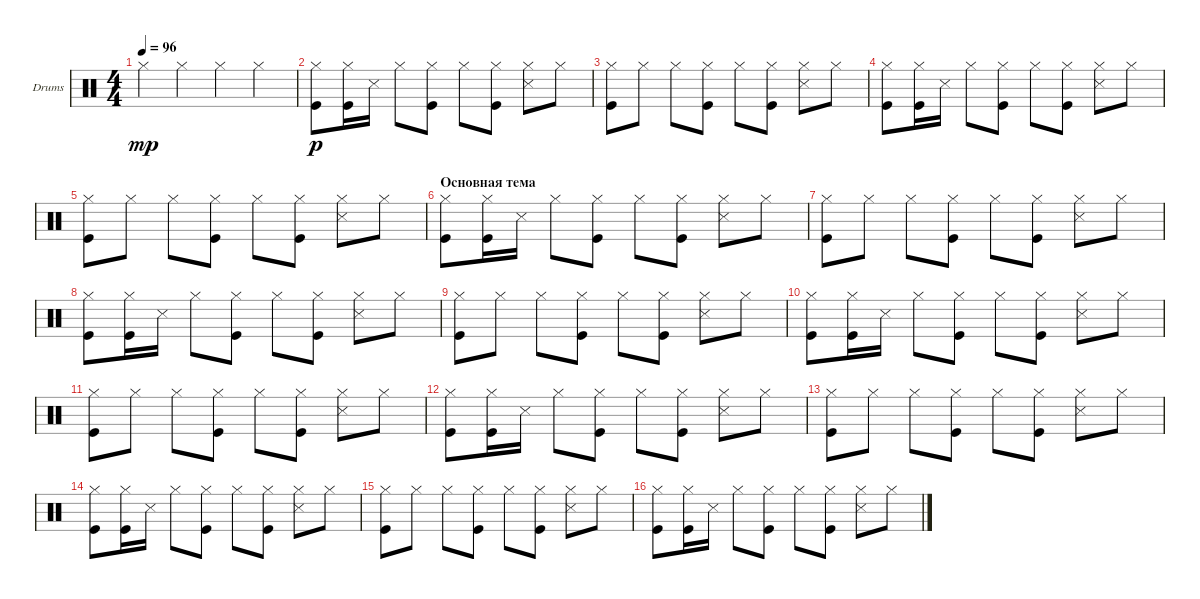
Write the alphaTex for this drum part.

\defaultSystemsLayout 4
\bracketExtendMode groupsimilarinstruments
\firstSystemTrackNameOrientation horizontal
\otherSystemsTrackNameOrientation horizontal
\track ("Drumkit" "Drums") {instrument percussion}
\staff {score}
\articulation defaults
\ts (4 4)
\tempo 96
\clef neutral
\ks c "Hi-Hat (closed)".4{dy mp} "Hi-Hat (closed)".4 "Hi-Hat (closed)".4 "Hi-Hat (closed)".4
|
\scale
0.375465 ("Hi-Hat (closed)" "Kick (hit)").8{dy p} ("Hi-Hat (closed)" "Kick (hit)").16 "Snare (side stick) 3".16 "Hi-Hat (closed)".8 ("Hi-Hat (closed)" "Kick (hit)").8 "Hi-Hat (closed)".8 ("Hi-Hat (closed)" "Kick (hit)").8 ("Hi-Hat (closed)" "Snare (side stick) 3").8 "Hi-Hat (closed)".8 |
\scale
0.208178 ("Hi-Hat (closed)" "Kick (hit)").8 "Hi-Hat (closed)".8 "Hi-Hat (closed)".8 ("Hi-Hat (closed)" "Kick (hit)").8 "Hi-Hat (closed)".8 ("Hi-Hat (closed)" "Kick (hit)").8 ("Hi-Hat (closed)" "Snare (side stick) 3").8 "Hi-Hat (closed)".8 |
\scale
0.208178 ("Hi-Hat (closed)" "Kick (hit)").8 ("Hi-Hat (closed)" "Kick (hit)").16 "Snare (side stick) 3".16 "Hi-Hat (closed)".8 ("Hi-Hat (closed)" "Kick (hit)").8 "Hi-Hat (closed)".8 ("Hi-Hat (closed)" "Kick (hit)").8 ("Hi-Hat (closed)" "Snare (side stick) 3").8 "Hi-Hat (closed)".8 |
\scale
0.208178 ("Hi-Hat (closed)" "Kick (hit)").8 "Hi-Hat (closed)".8 "Hi-Hat (closed)".8 ("Hi-Hat (closed)" "Kick (hit)").8 "Hi-Hat (closed)".8 ("Hi-Hat (closed)" "Kick (hit)").8 ("Hi-Hat (closed)" "Snare (side stick) 3").8 "Hi-Hat (closed)".8 |
\section ("" "Основная тема")
\scale
0.25 ("Hi-Hat (closed)" "Kick (hit)").8 ("Hi-Hat (closed)" "Kick (hit)").16 "Snare (side stick) 3".16 "Hi-Hat (closed)".8 ("Hi-Hat (closed)" "Kick (hit)").8 "Hi-Hat (closed)".8 ("Hi-Hat (closed)" "Kick (hit)").8 ("Hi-Hat (closed)" "Snare (side stick) 3").8 "Hi-Hat (closed)".8 |
\scale
0.25 ("Hi-Hat (closed)" "Kick (hit)").8 "Hi-Hat (closed)".8 "Hi-Hat (closed)".8 ("Hi-Hat (closed)" "Kick (hit)").8 "Hi-Hat (closed)".8 ("Hi-Hat (closed)" "Kick (hit)").8 ("Hi-Hat (closed)" "Snare (side stick) 3").8 "Hi-Hat (closed)".8 |
\scale
0.25 ("Hi-Hat (closed)" "Kick (hit)").8 ("Hi-Hat (closed)" "Kick (hit)").16 "Snare (side stick) 3".16 "Hi-Hat (closed)".8 ("Hi-Hat (closed)" "Kick (hit)").8 "Hi-Hat (closed)".8 ("Hi-Hat (closed)" "Kick (hit)").8 ("Hi-Hat (closed)" "Snare (side stick) 3").8 "Hi-Hat (closed)".8 |
\scale
0.25 ("Hi-Hat (closed)" "Kick (hit)").8 "Hi-Hat (closed)".8 "Hi-Hat (closed)".8 ("Hi-Hat (closed)" "Kick (hit)").8 "Hi-Hat (closed)".8 ("Hi-Hat (closed)" "Kick (hit)").8 ("Hi-Hat (closed)" "Snare (side stick) 3").8 "Hi-Hat (closed)".8 |
("Hi-Hat (closed)" "Kick (hit)").8 ("Hi-Hat (closed)" "Kick (hit)").16 "Snare (side stick) 3".16 "Hi-Hat (closed)".8 ("Hi-Hat (closed)" "Kick (hit)").8 "Hi-Hat (closed)".8 ("Hi-Hat (closed)" "Kick (hit)").8 ("Hi-Hat (closed)" "Snare (side stick) 3").8 "Hi-Hat (closed)".8 |
("Hi-Hat (closed)" "Kick (hit)").8 "Hi-Hat (closed)".8 "Hi-Hat (closed)".8 ("Hi-Hat (closed)" "Kick (hit)").8 "Hi-Hat (closed)".8 ("Hi-Hat (closed)" "Kick (hit)").8 ("Hi-Hat (closed)" "Snare (side stick) 3").8 "Hi-Hat (closed)".8 |
("Hi-Hat (closed)" "Kick (hit)").8 ("Hi-Hat (closed)" "Kick (hit)").16 "Snare (side stick) 3".16 "Hi-Hat (closed)".8 ("Hi-Hat (closed)" "Kick (hit)").8 "Hi-Hat (closed)".8 ("Hi-Hat (closed)" "Kick (hit)").8 ("Hi-Hat (closed)" "Snare (side stick) 3").8 "Hi-Hat (closed)".8 |
("Hi-Hat (closed)" "Kick (hit)").8 "Hi-Hat (closed)".8 "Hi-Hat (closed)".8 ("Hi-Hat (closed)" "Kick (hit)").8 "Hi-Hat (closed)".8 ("Hi-Hat (closed)" "Kick (hit)").8 ("Hi-Hat (closed)" "Snare (side stick) 3").8 "Hi-Hat (closed)".8 |
("Hi-Hat (closed)" "Kick (hit)").8 ("Hi-Hat (closed)" "Kick (hit)").16 "Snare (side stick) 3".16 "Hi-Hat (closed)".8 ("Hi-Hat (closed)" "Kick (hit)").8 "Hi-Hat (closed)".8 ("Hi-Hat (closed)" "Kick (hit)").8 ("Hi-Hat (closed)" "Snare (side stick) 3").8 "Hi-Hat (closed)".8 |
("Hi-Hat (closed)" "Kick (hit)").8 "Hi-Hat (closed)".8 "Hi-Hat (closed)".8 ("Hi-Hat (closed)" "Kick (hit)").8 "Hi-Hat (closed)".8 ("Hi-Hat (closed)" "Kick (hit)").8 ("Hi-Hat (closed)" "Snare (side stick) 3").8 "Hi-Hat (closed)".8 |
("Hi-Hat (closed)" "Kick (hit)").8 ("Hi-Hat (closed)" "Kick (hit)").16 "Snare (side stick) 3".16 "Hi-Hat (closed)".8 ("Hi-Hat (closed)" "Kick (hit)").8 "Hi-Hat (closed)".8 ("Hi-Hat (closed)" "Kick (hit)").8 ("Hi-Hat (closed)" "Snare (side stick) 3").8 "Hi-Hat (closed)".8
